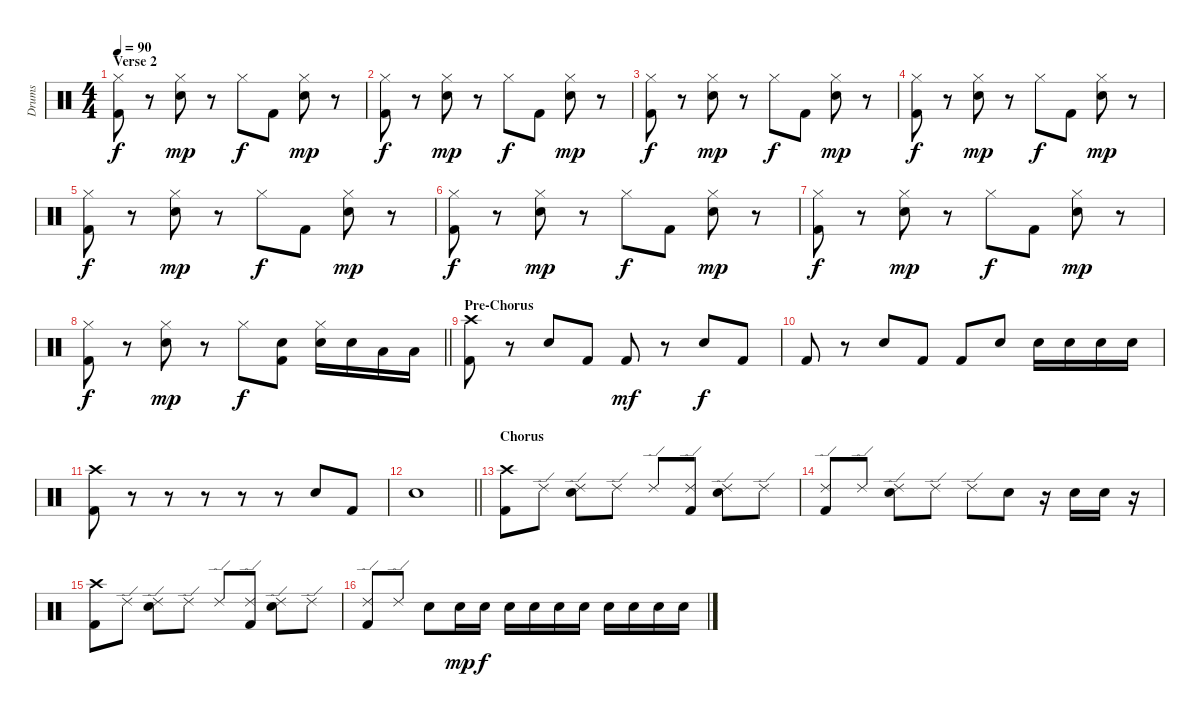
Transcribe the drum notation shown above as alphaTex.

\track ("Drums" "Drums") {instrument percussion}
\staff {score}
\articulation defaults
\ts (4 4)
\section ("" "Verse 2")
\tempo 90
\clef neutral
\ks c
("Hi-Hat (closed)" "Kick (hit) 2").8{dy f} r.8 ("Hi-Hat (closed)" "Electric Snare (hit)").8{dy mp} r.8 "Hi-Hat (closed)".8{dy f} "Kick (hit) 2".8 ("Hi-Hat (closed)" "Electric Snare (hit)").8{dy mp} r.8 |
("Hi-Hat (closed)" "Kick (hit) 2").8{dy f} r.8 ("Hi-Hat (closed)" "Electric Snare (hit)").8{dy mp} r.8 "Hi-Hat (closed)".8{dy f} "Kick (hit) 2".8 ("Hi-Hat (closed)" "Electric Snare (hit)").8{dy mp} r.8 |
("Hi-Hat (closed)" "Kick (hit) 2").8{dy f} r.8 ("Hi-Hat (closed)" "Electric Snare (hit)").8{dy mp} r.8 "Hi-Hat (closed)".8{dy f} "Kick (hit) 2".8 ("Hi-Hat (closed)" "Electric Snare (hit)").8{dy mp} r.8 |
("Hi-Hat (closed)" "Kick (hit) 2").8{dy f} r.8 ("Hi-Hat (closed)" "Electric Snare (hit)").8{dy mp} r.8 "Hi-Hat (closed)".8{dy f} "Kick (hit) 2".8 ("Hi-Hat (closed)" "Electric Snare (hit)").8{dy mp} r.8 |
("Hi-Hat (closed)" "Kick (hit) 2").8{dy f} r.8 ("Hi-Hat (closed)" "Electric Snare (hit)").8{dy mp} r.8 "Hi-Hat (closed)".8{dy f} "Kick (hit) 2".8 ("Hi-Hat (closed)" "Electric Snare (hit)").8{dy mp} r.8 |
("Hi-Hat (closed)" "Kick (hit) 2").8{dy f} r.8 ("Hi-Hat (closed)" "Electric Snare (hit)").8{dy mp} r.8 "Hi-Hat (closed)".8{dy f} "Kick (hit) 2".8 ("Hi-Hat (closed)" "Electric Snare (hit)").8{dy mp} r.8 |
("Hi-Hat (closed)" "Kick (hit) 2").8{dy f} r.8 ("Hi-Hat (closed)" "Electric Snare (hit)").8{dy mp} r.8 "Hi-Hat (closed)".8{dy f} "Kick (hit) 2".8 ("Hi-Hat (closed)" "Electric Snare (hit)").8{dy mp} r.8 |
\barLineRight lightlight
("Hi-Hat (closed)" "Kick (hit) 2").8{dy f} r.8 ("Hi-Hat (closed)" "Electric Snare (hit)").8{dy mp} r.8 "Hi-Hat (closed)".8{dy f} ("Electric Snare (hit)" "Kick (hit) 2").8 ("Hi-Hat (closed)" "Electric Snare (hit)").16 "Electric Snare (hit)".16 "Low Tom (hit)".16 "Low Tom (hit)".16 |
\section ("" "Pre-Chorus")
("Crash high (hit)" "Kick (hit) 2").8 r.8 "Electric Snare (hit)".8 "Kick (hit) 2".8 "Kick (hit) 2".8{dy mf} r.8 "Electric Snare (hit)".8{dy f} "Kick (hit) 2".8 |
"Kick (hit) 2".8 r.8 "Electric Snare (hit)".8 "Kick (hit) 2".8 "Kick (hit) 2".8 "Electric Snare (hit)".8 "Electric Snare (hit)".16 "Electric Snare (hit)".16 "Electric Snare (hit)".16 "Electric Snare (hit)".16 |
("Crash high (hit)" "Kick (hit) 2").8 r.8 r.8 r.8 r.8 r.8 "Electric Snare (hit)".8 "Kick (hit) 2".8 |
\barLineRight lightlight "Electric Snare (hit)".1
|
\section ("" "Chorus")
("Crash high (hit)" "Kick (hit) 2").8 "Ride (edge) 2".8 ("Ride (edge) 2" "Electric Snare (hit)").8 "Ride (edge) 2".8 "Ride (edge) 2".8 ("Ride (edge) 2" "Kick (hit) 2").8 ("Ride (edge) 2" "Electric Snare (hit)").8 "Ride (edge) 2".8 |
("Ride (edge) 2" "Kick (hit) 2").8 "Ride (edge) 2".8 ("Ride (edge) 2" "Electric Snare (hit)").8 "Ride (edge) 2".8 "Ride (edge) 2".8 "Electric Snare (hit)".8 r.16 "Electric Snare (hit)".16 "Electric Snare (hit)".16 r.16 |
("Crash high (hit)" "Kick (hit) 2").8 "Ride (edge) 2".8 ("Ride (edge) 2" "Electric Snare (hit)").8 "Ride (edge) 2".8 "Ride (edge) 2".8 ("Ride (edge) 2" "Kick (hit) 2").8 ("Ride (edge) 2" "Electric Snare (hit)").8 "Ride (edge) 2".8 |
("Ride (edge) 2" "Kick (hit) 2").8 "Ride (edge) 2".8 "Electric Snare (hit)".8 "Electric Snare (hit)".16{dy mp} "Electric Snare (hit)".16{dy f} "Electric Snare (hit)".16 "Electric Snare (hit)".16 "Electric Snare (hit)".16 "Electric Snare (hit)".16 "Electric Snare (hit)".16 "Electric Snare (hit)".16 "Electric Snare (hit)".16 "Electric Snare (hit)".16
